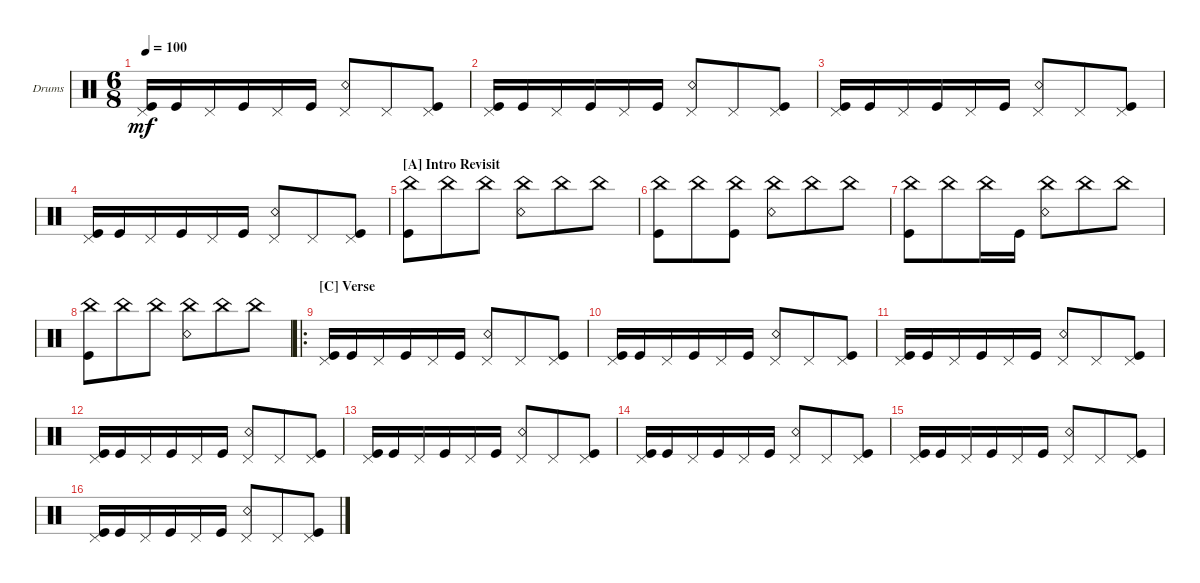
\defaultSystemsLayout 4
\bracketExtendMode groupsimilarinstruments
\firstSystemTrackNameOrientation horizontal
\otherSystemsTrackNameOrientation horizontal
\track ("Drumkit" "Drums") {instrument percussion}
\staff {score}
\articulation defaults
\ts (6 8)
\tempo 100
\clef neutral
\ks aminor
("Pedal Hi-Hat (hit)" "Kick (hit)").16{dy mf} "Kick (hit)".16 "Pedal Hi-Hat (hit)".16 "Kick (hit)".16 "Pedal Hi-Hat (hit)".16 "Kick (hit)".16 ("Pedal Hi-Hat (hit)" "Snare (rim shot)").8 "Pedal Hi-Hat (hit)".8 ("Pedal Hi-Hat (hit)" "Kick (hit)").8 |
("Pedal Hi-Hat (hit)" "Kick (hit)").16 "Kick (hit)".16 "Pedal Hi-Hat (hit)".16 "Kick (hit)".16 "Pedal Hi-Hat (hit)".16 "Kick (hit)".16 ("Pedal Hi-Hat (hit)" "Snare (rim shot)").8 "Pedal Hi-Hat (hit)".8 ("Pedal Hi-Hat (hit)" "Kick (hit)").8 |
("Pedal Hi-Hat (hit)" "Kick (hit)").16 "Kick (hit)".16 "Pedal Hi-Hat (hit)".16 "Kick (hit)".16 "Pedal Hi-Hat (hit)".16 "Kick (hit)".16 ("Pedal Hi-Hat (hit)" "Snare (rim shot)").8 "Pedal Hi-Hat (hit)".8 ("Pedal Hi-Hat (hit)" "Kick (hit)").8 |
("Pedal Hi-Hat (hit)" "Kick (hit)").16 "Kick (hit)".16 "Pedal Hi-Hat (hit)".16 "Kick (hit)".16 "Pedal Hi-Hat (hit)".16 "Kick (hit)".16 ("Pedal Hi-Hat (hit)" "Snare (rim shot)").8 "Pedal Hi-Hat (hit)".8 ("Pedal Hi-Hat (hit)" "Kick (hit)").8 |
\section ("A" "Intro Revisit")
("Kick (hit)" "China (hit)").8 "China (hit)".8 "China (hit)".8 ("Snare (rim shot)" "China (hit)").8 "China (hit)".8 "China (hit)".8 |
("Kick (hit)" "China (hit)").8 "China (hit)".8 ("China (hit)" "Kick (hit)").8 ("Snare (rim shot)" "China (hit)").8 "China (hit)".8 "China (hit)".8 |
("Kick (hit)" "China (hit)").8 "China (hit)".8 "China (hit)".16 "Kick (hit)".16 ("Snare (rim shot)" "China (hit)").8 "China (hit)".8 "China (hit)".8 |
("Kick (hit)" "China (hit)").8 "China (hit)".8 "China (hit)".8 ("Snare (rim shot)" "China (hit)").8 "China (hit)".8 "China (hit)".8 |
\ro
\section ("C" "Verse")
("Pedal Hi-Hat (hit)" "Kick (hit)").16 "Kick (hit)".16 "Pedal Hi-Hat (hit)".16 "Kick (hit)".16 "Pedal Hi-Hat (hit)".16 "Kick (hit)".16 ("Pedal Hi-Hat (hit)" "Snare (rim shot)").8 "Pedal Hi-Hat (hit)".8 ("Pedal Hi-Hat (hit)" "Kick (hit)").8 |
("Pedal Hi-Hat (hit)" "Kick (hit)").16 "Kick (hit)".16 "Pedal Hi-Hat (hit)".16 "Kick (hit)".16 "Pedal Hi-Hat (hit)".16 "Kick (hit)".16 ("Pedal Hi-Hat (hit)" "Snare (rim shot)").8 "Pedal Hi-Hat (hit)".8 ("Pedal Hi-Hat (hit)" "Kick (hit)").8 |
("Pedal Hi-Hat (hit)" "Kick (hit)").16 "Kick (hit)".16 "Pedal Hi-Hat (hit)".16 "Kick (hit)".16 "Pedal Hi-Hat (hit)".16 "Kick (hit)".16 ("Pedal Hi-Hat (hit)" "Snare (rim shot)").8 "Pedal Hi-Hat (hit)".8 ("Pedal Hi-Hat (hit)" "Kick (hit)").8 |
("Pedal Hi-Hat (hit)" "Kick (hit)").16 "Kick (hit)".16 "Pedal Hi-Hat (hit)".16 "Kick (hit)".16 "Pedal Hi-Hat (hit)".16 "Kick (hit)".16 ("Pedal Hi-Hat (hit)" "Snare (rim shot)").8 "Pedal Hi-Hat (hit)".8 ("Pedal Hi-Hat (hit)" "Kick (hit)").8 |
("Pedal Hi-Hat (hit)" "Kick (hit)").16 "Kick (hit)".16 "Pedal Hi-Hat (hit)".16 "Kick (hit)".16 "Pedal Hi-Hat (hit)".16 "Kick (hit)".16 ("Pedal Hi-Hat (hit)" "Snare (rim shot)").8 "Pedal Hi-Hat (hit)".8 ("Pedal Hi-Hat (hit)" "Kick (hit)").8 |
("Pedal Hi-Hat (hit)" "Kick (hit)").16 "Kick (hit)".16 "Pedal Hi-Hat (hit)".16 "Kick (hit)".16 "Pedal Hi-Hat (hit)".16 "Kick (hit)".16 ("Pedal Hi-Hat (hit)" "Snare (rim shot)").8 "Pedal Hi-Hat (hit)".8 ("Pedal Hi-Hat (hit)" "Kick (hit)").8 |
("Pedal Hi-Hat (hit)" "Kick (hit)").16 "Kick (hit)".16 "Pedal Hi-Hat (hit)".16 "Kick (hit)".16 "Pedal Hi-Hat (hit)".16 "Kick (hit)".16 ("Pedal Hi-Hat (hit)" "Snare (rim shot)").8 "Pedal Hi-Hat (hit)".8 ("Pedal Hi-Hat (hit)" "Kick (hit)").8 |
("Pedal Hi-Hat (hit)" "Kick (hit)").16 "Kick (hit)".16 "Pedal Hi-Hat (hit)".16 "Kick (hit)".16 "Pedal Hi-Hat (hit)".16 "Kick (hit)".16 ("Pedal Hi-Hat (hit)" "Snare (rim shot)").8 "Pedal Hi-Hat (hit)".8 ("Pedal Hi-Hat (hit)" "Kick (hit)").8
